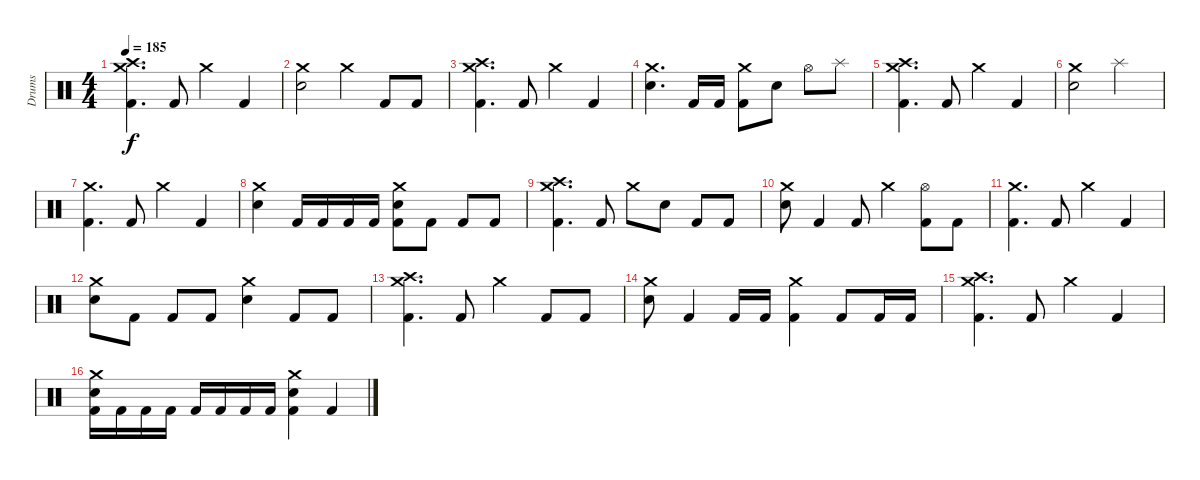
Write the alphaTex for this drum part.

\track ("Drums" "Drums") {instrument percussion}
\staff {score}
\articulation defaults
\ts (4 4)
\tempo 185
\clef neutral
\ks c
("Crash medium (hit)" "Crash high (hit)" "Kick (hit) 2").4{d dy f} "Kick (hit) 2".8 "Crash medium (hit)".4 "Kick (hit) 2".4 |
("Crash medium (hit)" "Electric Snare (hit)").2 "Crash medium (hit)".4 "Kick (hit) 2".8 "Kick (hit) 2".8 |
("Crash medium (hit)" "Crash high (hit)" "Kick (hit) 2").4{d} "Kick (hit) 2".8 "Crash medium (hit)".4 "Kick (hit) 2".4 |
("Crash medium (hit)" "Electric Snare (hit)").4{d} "Kick (hit) 2".16 "Kick (hit) 2".16 ("Crash medium (hit)" "Kick (hit) 2").8 "Electric Snare (hit)".8 "Hi-Hat (open)".8 "Splash (hit)".8 |
("Crash medium (hit)" "Crash high (hit)" "Kick (hit) 2").4{d} "Kick (hit) 2".8 "Crash medium (hit)".4 "Kick (hit) 2".4 |
("Crash medium (hit)" "Electric Snare (hit)").2 "Splash (hit)".2 |
("Crash medium (hit)" "Kick (hit) 2").4{d} "Kick (hit) 2".8 "Crash medium (hit)".4 "Kick (hit) 2".4 |
("Crash medium (hit)" "Electric Snare (hit)").4 "Kick (hit) 2".16 "Kick (hit) 2".16 "Kick (hit) 2".16 "Kick (hit) 2".16 ("Crash medium (hit)" "Electric Snare (hit)" "Kick (hit) 2").8 "Kick (hit) 2".8 "Kick (hit) 2".8 "Kick (hit) 2".8 |
("Crash medium (hit)" "Crash high (hit)" "Kick (hit) 2").4{d} "Kick (hit) 2".8 "Crash medium (hit)".8 "Electric Snare (hit)".8 "Kick (hit) 2".8 "Kick (hit) 2".8 |
("Crash medium (hit)" "Electric Snare (hit)").8 "Kick (hit) 2".4 "Kick (hit) 2".8 "Crash medium (hit)".4 ("Hi-Hat (open)" "Kick (hit) 2").8 "Kick (hit) 2".8 |
("Crash medium (hit)" "Kick (hit) 2").4{d} "Kick (hit) 2".8 "Crash medium (hit)".4 "Kick (hit) 2".4 |
("Crash medium (hit)" "Electric Snare (hit)").8 "Kick (hit) 2".8 "Kick (hit) 2".8 "Kick (hit) 2".8 ("Crash medium (hit)" "Electric Snare (hit)").4 "Kick (hit) 2".8 "Kick (hit) 2".8 |
("Crash medium (hit)" "Crash high (hit)" "Kick (hit) 2").4{d} "Kick (hit) 2".8 "Crash medium (hit)".4 "Kick (hit) 2".8 "Kick (hit) 2".8 |
("Crash medium (hit)" "Electric Snare (hit)").8 "Kick (hit) 2".4 "Kick (hit) 2".16 "Kick (hit) 2".16 ("Crash medium (hit)" "Kick (hit) 2").4 "Kick (hit) 2".8 "Kick (hit) 2".16 "Kick (hit) 2".16 |
("Crash medium (hit)" "Crash high (hit)" "Kick (hit) 2").4{d} "Kick (hit) 2".8 "Crash medium (hit)".4 "Kick (hit) 2".4 |
("Crash medium (hit)" "Electric Snare (hit)" "Kick (hit) 2").16 "Kick (hit) 2".16 "Kick (hit) 2".16 "Kick (hit) 2".16 "Kick (hit) 2".16 "Kick (hit) 2".16 "Kick (hit) 2".16 "Kick (hit) 2".16 ("Crash medium (hit)" "Electric Snare (hit)" "Kick (hit) 2").4 "Kick (hit) 2".4
